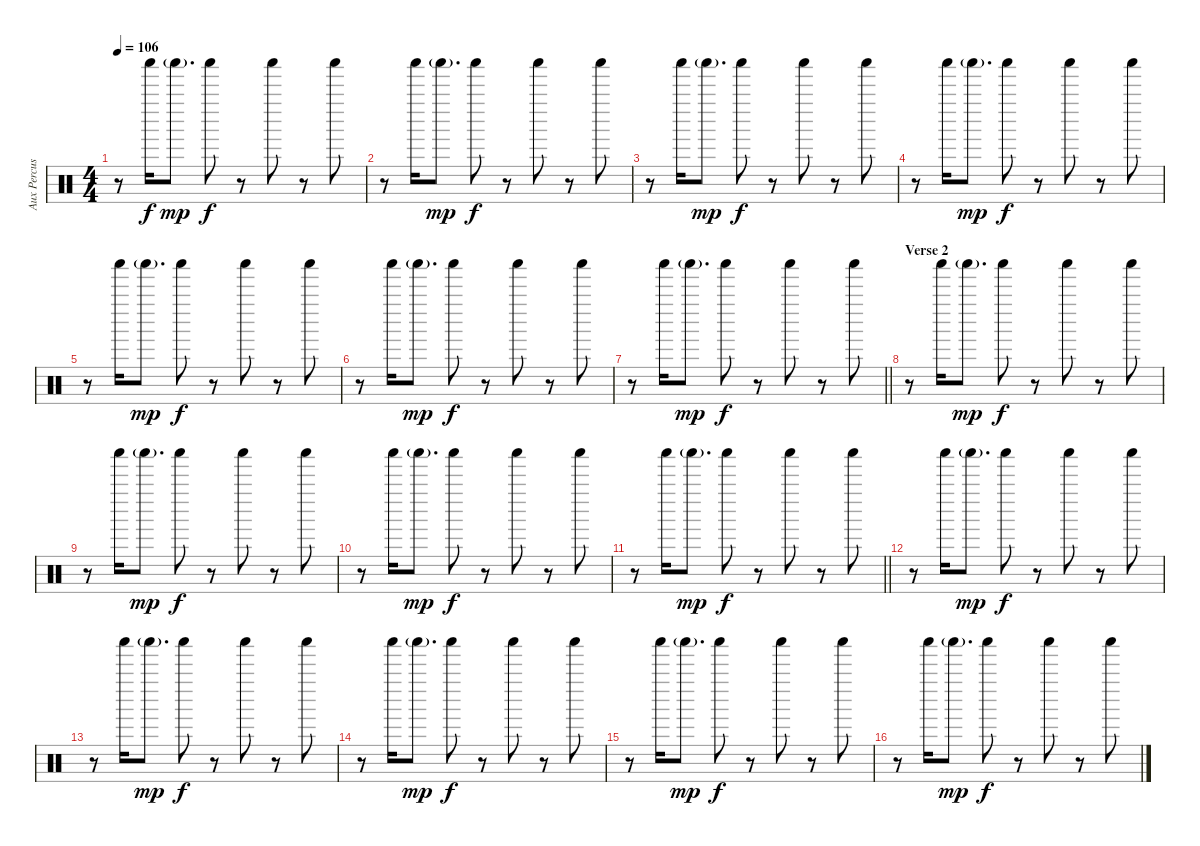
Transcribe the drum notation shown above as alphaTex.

\track ("Aux Percussion" "Aux Percus") {instrument percussion}
\staff {score}
\articulation defaults
\ts (4 4)
\tempo 106
\clef neutral
\ks c
r.8{dy f} "Shaker (hit)".16 "Shaker (hit)"{g}.8{d dy mp} "Shaker (hit)".8{dy f} r.8 "Shaker (hit)".8 r.8 "Shaker (hit)".8 |
r.8 "Shaker (hit)".16 "Shaker (hit)"{g}.8{d dy mp} "Shaker (hit)".8{dy f} r.8 "Shaker (hit)".8 r.8 "Shaker (hit)".8 |
r.8 "Shaker (hit)".16 "Shaker (hit)"{g}.8{d dy mp} "Shaker (hit)".8{dy f} r.8 "Shaker (hit)".8 r.8 "Shaker (hit)".8 |
r.8 "Shaker (hit)".16 "Shaker (hit)"{g}.8{d dy mp} "Shaker (hit)".8{dy f} r.8 "Shaker (hit)".8 r.8 "Shaker (hit)".8 |
r.8 "Shaker (hit)".16 "Shaker (hit)"{g}.8{d dy mp} "Shaker (hit)".8{dy f} r.8 "Shaker (hit)".8 r.8 "Shaker (hit)".8 |
r.8 "Shaker (hit)".16 "Shaker (hit)"{g}.8{d dy mp} "Shaker (hit)".8{dy f} r.8 "Shaker (hit)".8 r.8 "Shaker (hit)".8 |
\barLineRight lightlight
r.8 "Shaker (hit)".16 "Shaker (hit)"{g}.8{d dy mp} "Shaker (hit)".8{dy f} r.8 "Shaker (hit)".8 r.8 "Shaker (hit)".8 |
\section ("" "Verse 2")
r.8 "Shaker (hit)".16 "Shaker (hit)"{g}.8{d dy mp} "Shaker (hit)".8{dy f} r.8 "Shaker (hit)".8 r.8 "Shaker (hit)".8 |
r.8 "Shaker (hit)".16 "Shaker (hit)"{g}.8{d dy mp} "Shaker (hit)".8{dy f} r.8 "Shaker (hit)".8 r.8 "Shaker (hit)".8 |
r.8 "Shaker (hit)".16 "Shaker (hit)"{g}.8{d dy mp} "Shaker (hit)".8{dy f} r.8 "Shaker (hit)".8 r.8 "Shaker (hit)".8 |
\barLineRight lightlight
r.8 "Shaker (hit)".16 "Shaker (hit)"{g}.8{d dy mp} "Shaker (hit)".8{dy f} r.8 "Shaker (hit)".8 r.8 "Shaker (hit)".8 |
r.8 "Shaker (hit)".16 "Shaker (hit)"{g}.8{d dy mp} "Shaker (hit)".8{dy f} r.8 "Shaker (hit)".8 r.8 "Shaker (hit)".8 |
r.8 "Shaker (hit)".16 "Shaker (hit)"{g}.8{d dy mp} "Shaker (hit)".8{dy f} r.8 "Shaker (hit)".8 r.8 "Shaker (hit)".8 |
r.8 "Shaker (hit)".16 "Shaker (hit)"{g}.8{d dy mp} "Shaker (hit)".8{dy f} r.8 "Shaker (hit)".8 r.8 "Shaker (hit)".8 |
r.8 "Shaker (hit)".16 "Shaker (hit)"{g}.8{d dy mp} "Shaker (hit)".8{dy f} r.8 "Shaker (hit)".8 r.8 "Shaker (hit)".8 |
r.8 "Shaker (hit)".16 "Shaker (hit)"{g}.8{d dy mp} "Shaker (hit)".8{dy f} r.8 "Shaker (hit)".8 r.8 "Shaker (hit)".8
